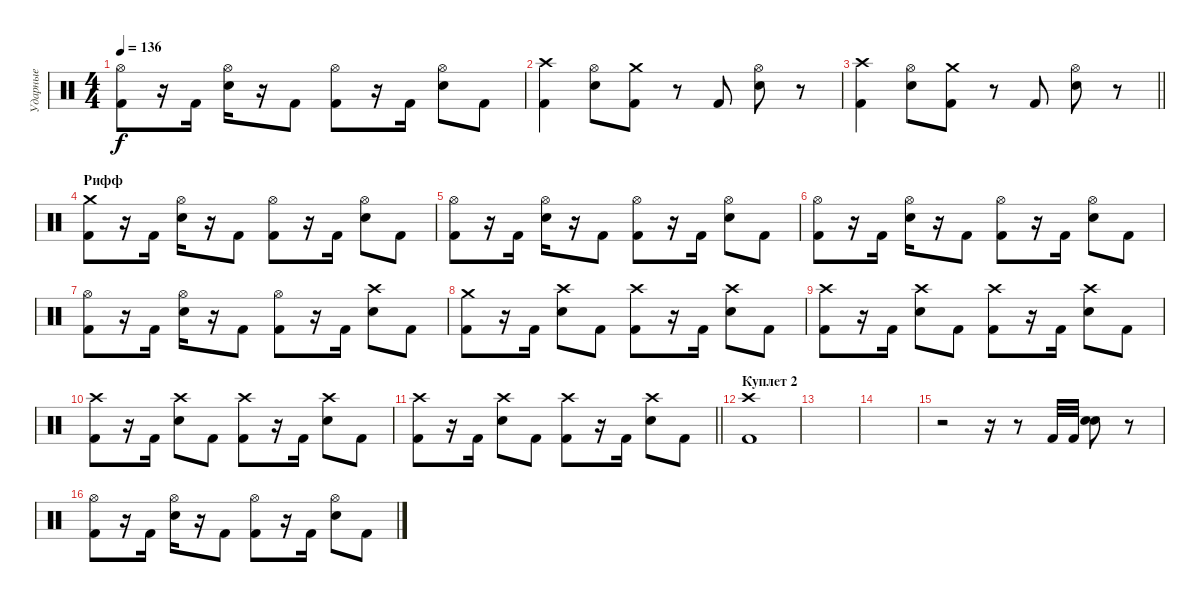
\track ("Ударные" "Ударные") {instrument percussion}
\staff {score}
\articulation defaults
\ts (4 4)
\tempo 136
\clef neutral
\ks c
("Hi-Hat (open)" "Kick (hit) 2").8{dy f} r.16 "Kick (hit) 2".16 ("Hi-Hat (open)" "Snare (hit) 2").16 r.16 "Kick (hit) 2".8 ("Hi-Hat (open)" "Kick (hit) 2").8 r.16 "Kick (hit) 2".16 ("Hi-Hat (open)" "Snare (hit) 2").8 "Kick (hit) 2".8 |
("Crash high (hit)" "Kick (hit) 2").4 ("Hi-Hat (open)" "Snare (hit) 2").8 ("Crash medium (hit)" "Kick (hit) 2").8 r.8 "Kick (hit) 2".8 ("Hi-Hat (open)" "Snare (hit) 2").8 r.8 |
\barLineRight lightlight
("Crash high (hit)" "Kick (hit) 2").4 ("Hi-Hat (open)" "Snare (hit) 2").8 ("Crash medium (hit)" "Kick (hit) 2").8 r.8 "Kick (hit) 2".8 ("Hi-Hat (open)" "Snare (hit) 2").8 r.8 |
\section ("" "Рифф")
("Crash medium (hit)" "Kick (hit) 2").8 r.16 "Kick (hit) 2".16 ("Hi-Hat (open)" "Snare (hit) 2").16 r.16 "Kick (hit) 2".8 ("Hi-Hat (open)" "Kick (hit) 2").8 r.16 "Kick (hit) 2".16 ("Hi-Hat (open)" "Snare (hit) 2").8 "Kick (hit) 2".8 |
("Hi-Hat (open)" "Kick (hit) 2").8 r.16 "Kick (hit) 2".16 ("Hi-Hat (open)" "Snare (hit) 2").16 r.16 "Kick (hit) 2".8 ("Hi-Hat (open)" "Kick (hit) 2").8 r.16 "Kick (hit) 2".16 ("Hi-Hat (open)" "Snare (hit) 2").8 "Kick (hit) 2".8 |
("Hi-Hat (open)" "Kick (hit) 2").8 r.16 "Kick (hit) 2".16 ("Hi-Hat (open)" "Snare (hit) 2").16 r.16 "Kick (hit) 2".8 ("Hi-Hat (open)" "Kick (hit) 2").8 r.16 "Kick (hit) 2".16 ("Hi-Hat (open)" "Snare (hit) 2").8 "Kick (hit) 2".8 |
("Hi-Hat (open)" "Kick (hit) 2").8 r.16 "Kick (hit) 2".16 ("Hi-Hat (open)" "Snare (hit) 2").16 r.16 "Kick (hit) 2".8 ("Hi-Hat (open)" "Kick (hit) 2").8 r.16 "Kick (hit) 2".16 ("Crash high (hit)" "Snare (hit) 2").8 "Kick (hit) 2".8 |
("Crash medium (hit)" "Kick (hit) 2").8 r.16 "Kick (hit) 2".16 ("Crash high (hit)" "Snare (hit) 2").8 "Kick (hit) 2".8 ("Crash high (hit)" "Kick (hit) 2").8 r.16 "Kick (hit) 2".16 ("Crash high (hit)" "Snare (hit) 2").8 "Kick (hit) 2".8 |
("Crash high (hit)" "Kick (hit) 2").8 r.16 "Kick (hit) 2".16 ("Crash high (hit)" "Snare (hit) 2").8 "Kick (hit) 2".8 ("Crash high (hit)" "Kick (hit) 2").8 r.16 "Kick (hit) 2".16 ("Crash high (hit)" "Snare (hit) 2").8 "Kick (hit) 2".8 |
("Crash high (hit)" "Kick (hit) 2").8 r.16 "Kick (hit) 2".16 ("Crash high (hit)" "Snare (hit) 2").8 "Kick (hit) 2".8 ("Crash high (hit)" "Kick (hit) 2").8 r.16 "Kick (hit) 2".16 ("Crash high (hit)" "Snare (hit) 2").8 "Kick (hit) 2".8 |
\barLineRight lightlight
("Crash high (hit)" "Kick (hit) 2").8 r.16 "Kick (hit) 2".16 ("Crash high (hit)" "Snare (hit) 2").8 "Kick (hit) 2".8 ("Crash high (hit)" "Kick (hit) 2").8 r.16 "Kick (hit) 2".16 ("Crash high (hit)" "Snare (hit) 2").8 "Kick (hit) 2".8 |
\section ("" "Куплет 2")
("Crash high (hit)" "Kick (hit) 2").1 |
|
|
r.2 r.16 r.8 "Kick (hit) 2".32 "Kick (hit) 2".32 ("Snare (hit) 2" "Snare (hit) 2").8 r.8 |
("Hi-Hat (open)" "Kick (hit) 2").8 r.16 "Kick (hit) 2".16 ("Hi-Hat (open)" "Snare (hit) 2").16 r.16 "Kick (hit) 2".8 ("Hi-Hat (open)" "Kick (hit) 2").8 r.16 "Kick (hit) 2".16 ("Hi-Hat (open)" "Snare (hit) 2").8 "Kick (hit) 2".8
